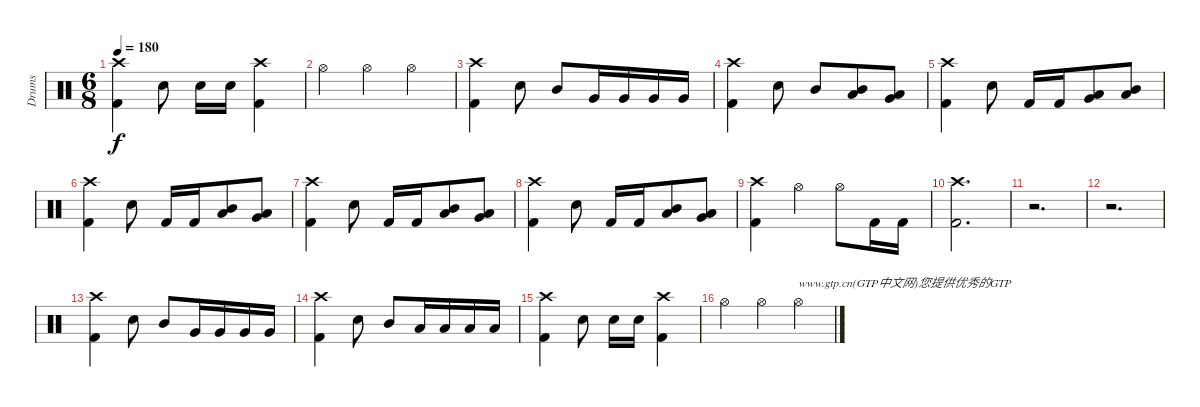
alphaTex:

\track ("Drums" "Drums") {instrument percussion}
\staff {score}
\articulation defaults
\ts (6 8)
\tempo 180
\clef neutral
\ks c
("Crash high (hit)" "Kick (hit) 2").4{dy f} "Snare (hit) 2".8 "Snare (hit) 2".16 "Snare (hit) 2".16 ("Crash high (hit)" "Kick (hit) 2").4 |
"Hi-Hat (open)".4 "Hi-Hat (open)".4 "Hi-Hat (open)".4 |
("Crash high (hit)" "Kick (hit) 2").4 "Snare (hit) 2".8 "Mid Tom (hit)".8 "Very Low Tom (hit)".16 "Very Low Tom (hit)".16 "Very Low Tom (hit)".16 "Very Low Tom (hit)".16 |
("Crash high (hit)" "Kick (hit) 2").4 "Snare (hit) 2".8 "Mid Tom (hit)".8 ("Mid Tom (hit)" "Low Tom (hit)").8 ("Low Tom (hit)" "Very Low Tom (hit)").8 |
("Crash high (hit)" "Kick (hit) 2").4 "Snare (hit) 2".8 "Kick (hit) 2".16 "Kick (hit) 2".16 ("Low Tom (hit)" "Very Low Tom (hit)").8 ("Mid Tom (hit)" "Low Tom (hit)").8 |
("Crash high (hit)" "Kick (hit) 2").4 "Snare (hit) 2".8 "Kick (hit) 2".16 "Kick (hit) 2".16 ("Mid Tom (hit)" "Low Tom (hit)").8 ("Low Tom (hit)" "Very Low Tom (hit)").8 |
("Crash high (hit)" "Kick (hit) 2").4 "Snare (hit) 2".8 "Kick (hit) 2".16 "Kick (hit) 2".16 ("Mid Tom (hit)" "Low Tom (hit)").8 ("Low Tom (hit)" "Very Low Tom (hit)").8 |
("Crash high (hit)" "Kick (hit) 2").4 "Snare (hit) 2".8 "Kick (hit) 2".16 "Kick (hit) 2".16 ("Mid Tom (hit)" "Low Tom (hit)").8 ("Low Tom (hit)" "Very Low Tom (hit)").8 |
("Crash high (hit)" "Kick (hit) 2").4 "Hi-Hat (open)".4 "Hi-Hat (open)".8 "Kick (hit) 2".16 "Kick (hit) 2".16 |
("Crash high (hit)" "Kick (hit) 2").2{d} |
r.2{d} |
r.2{d} |
("Crash high (hit)" "Kick (hit) 2").4 "Snare (hit) 2".8 "Mid Tom (hit)".8 "Very Low Tom (hit)".16 "Very Low Tom (hit)".16 "Very Low Tom (hit)".16 "Very Low Tom (hit)".16 |
("Crash high (hit)" "Kick (hit) 2").4 "Snare (hit) 2".8 "Mid Tom (hit)".8 "Low Tom (hit)".16 "Low Tom (hit)".16 "Low Tom (hit)".16 "Low Tom (hit)".16 |
("Crash high (hit)" "Kick (hit) 2").4 "Snare (hit) 2".8 "Snare (hit) 2".16 "Snare (hit) 2".16 ("Crash high (hit)" "Kick (hit) 2").4 |
"Hi-Hat (open)".4 "Hi-Hat (open)".4 "Hi-Hat (open)".4{txt "www.gtp.cn(GTP中文网)您提供优秀的GTP"}
